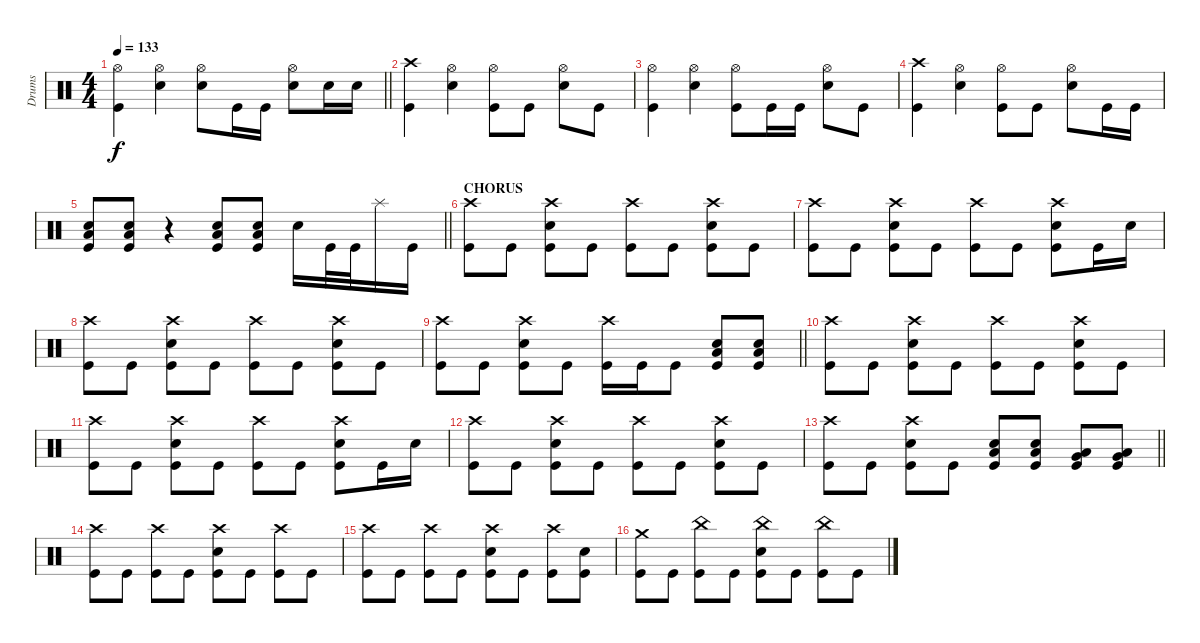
\track ("Drums" "Drums") {instrument percussion}
\staff
\articulation defaults
\ts (4 4)
\tempo 133
\clef neutral
\barLineRight lightlight
\ks c
("Hi-Hat (open)" "Kick (hit)").4{dy f} ("Hi-Hat (open)" "Electric Snare (hit)").4 ("Hi-Hat (open)" "Electric Snare (hit)").8 "Kick (hit)".16 "Kick (hit)".16 ("Hi-Hat (open)" "Electric Snare (hit)").8 "Electric Snare (hit)".16 "Electric Snare (hit)".16 |
("Crash high (hit)" "Kick (hit)").4 ("Hi-Hat (open)" "Electric Snare (hit)").4 ("Hi-Hat (open)" "Kick (hit)").8 "Kick (hit)".8 ("Hi-Hat (open)" "Electric Snare (hit)").8 "Kick (hit)".8 |
("Hi-Hat (open)" "Kick (hit)").4 ("Hi-Hat (open)" "Electric Snare (hit)").4 ("Hi-Hat (open)" "Kick (hit)").8 "Kick (hit)".16 "Kick (hit)".16 ("Hi-Hat (open)" "Electric Snare (hit)").8 "Kick (hit)".8 |
("Crash high (hit)" "Kick (hit)").4 ("Hi-Hat (open)" "Electric Snare (hit)").4 ("Hi-Hat (open)" "Kick (hit)").8 "Kick (hit)".8 ("Hi-Hat (open)" "Electric Snare (hit)").8 "Kick (hit)".16 "Kick (hit)".16 |
\barLineRight lightlight
("Low Floor Tom (hit)" "Electric Snare (hit)" "Kick (hit)").8 ("Low Floor Tom (hit)" "Electric Snare (hit)" "Kick (hit)").8 r.4 ("Low Floor Tom (hit)" "Electric Snare (hit)" "Kick (hit)").8 ("Low Floor Tom (hit)" "Electric Snare (hit)" "Kick (hit)").8 "Electric Snare (hit)".16 "Kick (hit)".32 "Kick (hit)".32 "Splash (hit)".16 "Kick (hit)".16 |
\section ("" "CHORUS")
("Crash high (hit)" "Kick (hit)").8 "Kick (hit)".8 ("Crash high (hit)" "Electric Snare (hit)" "Kick (hit)").8 "Kick (hit)".8 ("Crash high (hit)" "Kick (hit)").8 "Kick (hit)".8 ("Crash high (hit)" "Electric Snare (hit)" "Kick (hit)").8 "Kick (hit)".8 |
("Crash high (hit)" "Kick (hit)").8 "Kick (hit)".8 ("Crash high (hit)" "Electric Snare (hit)" "Kick (hit)").8 "Kick (hit)".8 ("Crash high (hit)" "Kick (hit)").8 "Kick (hit)".8 ("Crash high (hit)" "Electric Snare (hit)" "Kick (hit)").8 "Kick (hit)".16 "Electric Snare (hit)".16 |
("Crash high (hit)" "Kick (hit)").8 "Kick (hit)".8 ("Crash high (hit)" "Electric Snare (hit)" "Kick (hit)").8 "Kick (hit)".8 ("Crash high (hit)" "Kick (hit)").8 "Kick (hit)".8 ("Crash high (hit)" "Electric Snare (hit)" "Kick (hit)").8 "Kick (hit)".8 |
\barLineRight lightlight
("Crash high (hit)" "Kick (hit)").8 "Kick (hit)".8 ("Crash high (hit)" "Electric Snare (hit)" "Kick (hit)").8 "Kick (hit)".8 ("Crash high (hit)" "Kick (hit)").16 "Kick (hit)".16 "Kick (hit)".8 ("Low Floor Tom (hit)" "Electric Snare (hit)" "Kick (hit)").8 ("Low Floor Tom (hit)" "Electric Snare (hit)" "Kick (hit)").8 |
("Crash high (hit)" "Kick (hit)").8 "Kick (hit)".8 ("Crash high (hit)" "Electric Snare (hit)" "Kick (hit)").8 "Kick (hit)".8 ("Crash high (hit)" "Kick (hit)").8 "Kick (hit)".8 ("Crash high (hit)" "Electric Snare (hit)" "Kick (hit)").8 "Kick (hit)".8 |
("Crash high (hit)" "Kick (hit)").8 "Kick (hit)".8 ("Crash high (hit)" "Electric Snare (hit)" "Kick (hit)").8 "Kick (hit)".8 ("Crash high (hit)" "Kick (hit)").8 "Kick (hit)".8 ("Crash high (hit)" "Electric Snare (hit)" "Kick (hit)").8 "Kick (hit)".16 "Electric Snare (hit)".16 |
("Crash high (hit)" "Kick (hit)").8 "Kick (hit)".8 ("Crash high (hit)" "Electric Snare (hit)" "Kick (hit)").8 "Kick (hit)".8 ("Crash high (hit)" "Kick (hit)").8 "Kick (hit)".8 ("Crash high (hit)" "Electric Snare (hit)" "Kick (hit)").8 "Kick (hit)".8 |
\barLineRight lightlight
("Crash high (hit)" "Kick (hit)").8 "Kick (hit)".8 ("Crash high (hit)" "Electric Snare (hit)" "Kick (hit)").8 "Kick (hit)".8 ("Low Floor Tom (hit)" "Electric Snare (hit)" "Kick (hit)").8 ("Low Floor Tom (hit)" "Electric Snare (hit)" "Kick (hit)").8 ("Very Low Tom (hit)" "Low Floor Tom (hit)" "Kick (hit)").8 ("Very Low Tom (hit)" "Low Floor Tom (hit)" "Kick (hit)").8 |
("Crash high (hit)" "Kick (hit)").8 "Kick (hit)".8 ("Crash high (hit)" "Kick (hit)").8 "Kick (hit)".8 ("Crash high (hit)" "Electric Snare (hit)" "Kick (hit)").8 "Kick (hit)".8 ("Crash high (hit)" "Kick (hit)").8 "Kick (hit)".8 |
("Crash high (hit)" "Kick (hit)").8 "Kick (hit)".8 ("Crash high (hit)" "Kick (hit)").8 "Kick (hit)".8 ("Crash high (hit)" "Electric Snare (hit)" "Kick (hit)").8 "Kick (hit)".8 ("Crash high (hit)" "Kick (hit)").8 ("Electric Snare (hit)" "Kick (hit)").8 |
("Crash medium (hit)" "Kick (hit)").8 "Kick (hit)".8 ("China (hit)" "Kick (hit)").8 "Kick (hit)".8 ("China (hit)" "Electric Snare (hit)" "Kick (hit)").8 "Kick (hit)".8 ("China (hit)" "Kick (hit)").8 "Kick (hit)".8
